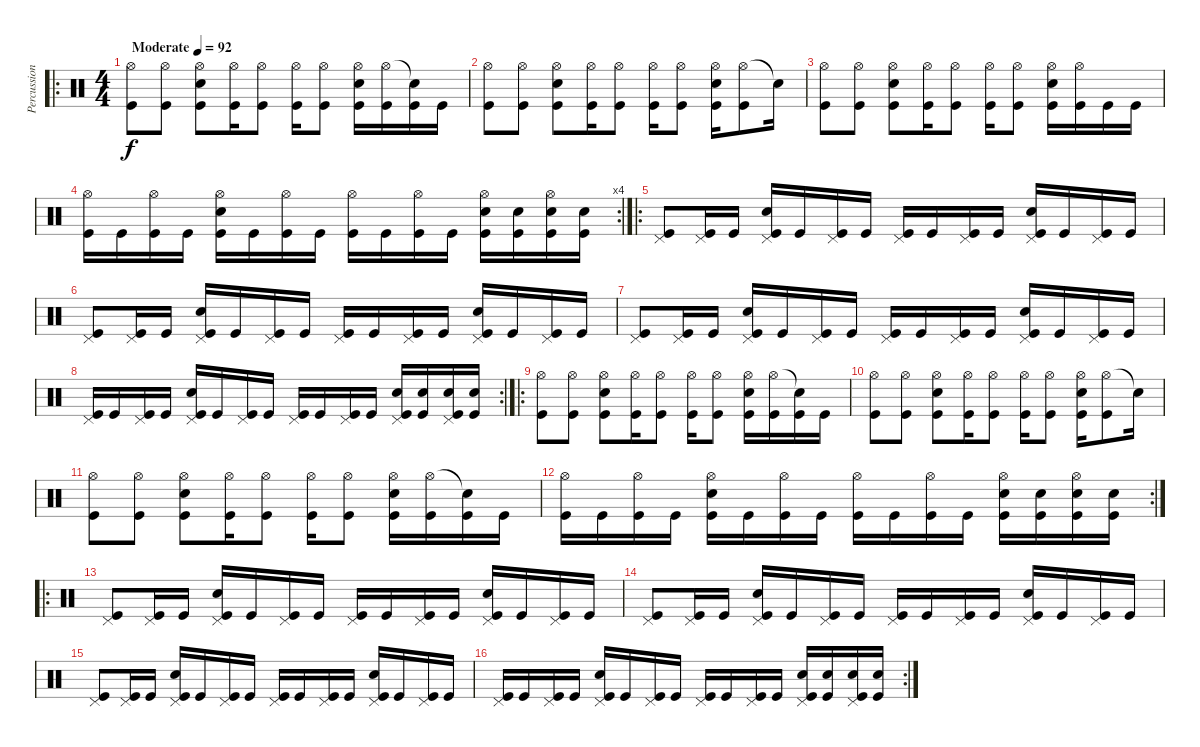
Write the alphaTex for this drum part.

\track ("Percussion" "Percussion") {instrument percussion}
\staff {score}
\articulation defaults
\ro
\ts (4 4)
\tempo (92 "Moderate")
\clef neutral
\ks c
("Hi-Hat (open)" "Kick (hit)").8{dy f} ("Hi-Hat (open)" "Kick (hit)").8 ("Hi-Hat (open)" "Electric Snare (hit)" "Kick (hit)").8 ("Hi-Hat (open)" "Kick (hit)").16 ("Hi-Hat (open)" "Kick (hit)").8 ("Hi-Hat (open)" "Kick (hit)").16 ("Hi-Hat (open)" "Kick (hit)").8 ("Hi-Hat (open)" "Electric Snare (hit)" "Kick (hit)").16 ("Hi-Hat (open)" "Kick (hit)").16 ("Snare (hit)"{t} "Kick (hit)").16 "Kick (hit)".16 |
("Hi-Hat (open)" "Kick (hit)").8 ("Hi-Hat (open)" "Kick (hit)").8 ("Hi-Hat (open)" "Electric Snare (hit)" "Kick (hit)").8 ("Hi-Hat (open)" "Kick (hit)").16 ("Hi-Hat (open)" "Kick (hit)").8 ("Hi-Hat (open)" "Kick (hit)").16 ("Hi-Hat (open)" "Kick (hit)").8 ("Hi-Hat (open)" "Electric Snare (hit)" "Kick (hit)").16 ("Hi-Hat (open)" "Kick (hit)").8 "Snare (hit)"{t}.16 |
("Hi-Hat (open)" "Kick (hit)").8 ("Hi-Hat (open)" "Kick (hit)").8 ("Hi-Hat (open)" "Electric Snare (hit)" "Kick (hit)").8 ("Hi-Hat (open)" "Kick (hit)").16 ("Hi-Hat (open)" "Kick (hit)").8 ("Hi-Hat (open)" "Kick (hit)").16 ("Hi-Hat (open)" "Kick (hit)").8 ("Hi-Hat (open)" "Electric Snare (hit)" "Kick (hit)").16 ("Hi-Hat (open)" "Kick (hit)").16 "Kick (hit)".16 "Kick (hit)".16 |
\rc 4
("Hi-Hat (open)" "Kick (hit)").16 "Kick (hit)".16 ("Hi-Hat (open)" "Kick (hit)").16 "Kick (hit)".16 ("Hi-Hat (open)" "Electric Snare (hit)" "Kick (hit)").16 "Kick (hit)".16 ("Hi-Hat (open)" "Kick (hit)").16 "Kick (hit)".16 ("Hi-Hat (open)" "Kick (hit)").16 "Kick (hit)".16 ("Hi-Hat (open)" "Kick (hit)").16 "Kick (hit)".16 ("Hi-Hat (open)" "Electric Snare (hit)" "Kick (hit)").16 ("Electric Snare (hit)" "Kick (hit)").16 ("Hi-Hat (open)" "Electric Snare (hit)" "Kick (hit)").16 ("Electric Snare (hit)" "Kick (hit)").16 |
\ro
("Pedal Hi-Hat (hit)" "Kick (hit)").8 ("Pedal Hi-Hat (hit)" "Kick (hit)").16 "Kick (hit)".16 ("Pedal Hi-Hat (hit)" "Electric Snare (hit)" "Kick (hit)").16 "Kick (hit)".16 ("Pedal Hi-Hat (hit)" "Kick (hit)").16 "Kick (hit)".16 ("Pedal Hi-Hat (hit)" "Kick (hit)").16 "Kick (hit)".16 ("Pedal Hi-Hat (hit)" "Kick (hit)").16 "Kick (hit)".16 ("Pedal Hi-Hat (hit)" "Electric Snare (hit)" "Kick (hit)").16 "Kick (hit)".16 ("Pedal Hi-Hat (hit)" "Kick (hit)").16 "Kick (hit)".16 |
("Pedal Hi-Hat (hit)" "Kick (hit)").8 ("Pedal Hi-Hat (hit)" "Kick (hit)").16 "Kick (hit)".16 ("Pedal Hi-Hat (hit)" "Electric Snare (hit)" "Kick (hit)").16 "Kick (hit)".16 ("Pedal Hi-Hat (hit)" "Kick (hit)").16 "Kick (hit)".16 ("Pedal Hi-Hat (hit)" "Kick (hit)").16 "Kick (hit)".16 ("Pedal Hi-Hat (hit)" "Kick (hit)").16 "Kick (hit)".16 ("Pedal Hi-Hat (hit)" "Electric Snare (hit)" "Kick (hit)").16 "Kick (hit)".16 ("Pedal Hi-Hat (hit)" "Kick (hit)").16 "Kick (hit)".16 |
("Pedal Hi-Hat (hit)" "Kick (hit)").8 ("Pedal Hi-Hat (hit)" "Kick (hit)").16 "Kick (hit)".16 ("Pedal Hi-Hat (hit)" "Electric Snare (hit)" "Kick (hit)").16 "Kick (hit)".16 ("Pedal Hi-Hat (hit)" "Kick (hit)").16 "Kick (hit)".16 ("Pedal Hi-Hat (hit)" "Kick (hit)").16 "Kick (hit)".16 ("Pedal Hi-Hat (hit)" "Kick (hit)").16 "Kick (hit)".16 ("Pedal Hi-Hat (hit)" "Electric Snare (hit)" "Kick (hit)").16 "Kick (hit)".16 ("Pedal Hi-Hat (hit)" "Kick (hit)").16 "Kick (hit)".16 |
\rc 2
("Pedal Hi-Hat (hit)" "Kick (hit)").16 "Kick (hit)".16 ("Pedal Hi-Hat (hit)" "Kick (hit)").16 "Kick (hit)".16 ("Pedal Hi-Hat (hit)" "Electric Snare (hit)" "Kick (hit)").16 "Kick (hit)".16 ("Pedal Hi-Hat (hit)" "Kick (hit)").16 "Kick (hit)".16 ("Pedal Hi-Hat (hit)" "Kick (hit)").16 "Kick (hit)".16 ("Pedal Hi-Hat (hit)" "Kick (hit)").16 "Kick (hit)".16 ("Pedal Hi-Hat (hit)" "Electric Snare (hit)" "Kick (hit)").16 ("Electric Snare (hit)" "Kick (hit)").16 ("Pedal Hi-Hat (hit)" "Electric Snare (hit)" "Kick (hit)").16 ("Electric Snare (hit)" "Kick (hit)").16 |
\ro
("Hi-Hat (open)" "Kick (hit)").8 ("Hi-Hat (open)" "Kick (hit)").8 ("Hi-Hat (open)" "Electric Snare (hit)" "Kick (hit)").8 ("Hi-Hat (open)" "Kick (hit)").16 ("Hi-Hat (open)" "Kick (hit)").8 ("Hi-Hat (open)" "Kick (hit)").16 ("Hi-Hat (open)" "Kick (hit)").8 ("Hi-Hat (open)" "Electric Snare (hit)" "Kick (hit)").16 ("Hi-Hat (open)" "Kick (hit)").16 ("Snare (hit)"{t} "Kick (hit)").16 "Kick (hit)".16 |
("Hi-Hat (open)" "Kick (hit)").8 ("Hi-Hat (open)" "Kick (hit)").8 ("Hi-Hat (open)" "Electric Snare (hit)" "Kick (hit)").8 ("Hi-Hat (open)" "Kick (hit)").16 ("Hi-Hat (open)" "Kick (hit)").8 ("Hi-Hat (open)" "Kick (hit)").16 ("Hi-Hat (open)" "Kick (hit)").8 ("Hi-Hat (open)" "Electric Snare (hit)" "Kick (hit)").16 ("Hi-Hat (open)" "Kick (hit)").8 "Snare (hit)"{t}.16 |
("Hi-Hat (open)" "Kick (hit)").8 ("Hi-Hat (open)" "Kick (hit)").8 ("Hi-Hat (open)" "Electric Snare (hit)" "Kick (hit)").8 ("Hi-Hat (open)" "Kick (hit)").16 ("Hi-Hat (open)" "Kick (hit)").8 ("Hi-Hat (open)" "Kick (hit)").16 ("Hi-Hat (open)" "Kick (hit)").8 ("Hi-Hat (open)" "Electric Snare (hit)" "Kick (hit)").16 ("Hi-Hat (open)" "Kick (hit)").16 ("Snare (hit)"{t} "Kick (hit)").16 "Kick (hit)".16 |
\rc 2
("Hi-Hat (open)" "Kick (hit)").16 "Kick (hit)".16 ("Hi-Hat (open)" "Kick (hit)").16 "Kick (hit)".16 ("Hi-Hat (open)" "Electric Snare (hit)" "Kick (hit)").16 "Kick (hit)".16 ("Hi-Hat (open)" "Kick (hit)").16 "Kick (hit)".16 ("Hi-Hat (open)" "Kick (hit)").16 "Kick (hit)".16 ("Hi-Hat (open)" "Kick (hit)").16 "Kick (hit)".16 ("Hi-Hat (open)" "Electric Snare (hit)" "Kick (hit)").16 ("Electric Snare (hit)" "Kick (hit)").16 ("Hi-Hat (open)" "Electric Snare (hit)" "Kick (hit)").16 ("Electric Snare (hit)" "Kick (hit)").16 |
\ro
("Pedal Hi-Hat (hit)" "Kick (hit)").8 ("Pedal Hi-Hat (hit)" "Kick (hit)").16 "Kick (hit)".16 ("Pedal Hi-Hat (hit)" "Electric Snare (hit)" "Kick (hit)").16 "Kick (hit)".16 ("Pedal Hi-Hat (hit)" "Kick (hit)").16 "Kick (hit)".16 ("Pedal Hi-Hat (hit)" "Kick (hit)").16 "Kick (hit)".16 ("Pedal Hi-Hat (hit)" "Kick (hit)").16 "Kick (hit)".16 ("Pedal Hi-Hat (hit)" "Electric Snare (hit)" "Kick (hit)").16 "Kick (hit)".16 ("Pedal Hi-Hat (hit)" "Kick (hit)").16 "Kick (hit)".16 |
("Pedal Hi-Hat (hit)" "Kick (hit)").8 ("Pedal Hi-Hat (hit)" "Kick (hit)").16 "Kick (hit)".16 ("Pedal Hi-Hat (hit)" "Electric Snare (hit)" "Kick (hit)").16 "Kick (hit)".16 ("Pedal Hi-Hat (hit)" "Kick (hit)").16 "Kick (hit)".16 ("Pedal Hi-Hat (hit)" "Kick (hit)").16 "Kick (hit)".16 ("Pedal Hi-Hat (hit)" "Kick (hit)").16 "Kick (hit)".16 ("Pedal Hi-Hat (hit)" "Electric Snare (hit)" "Kick (hit)").16 "Kick (hit)".16 ("Pedal Hi-Hat (hit)" "Kick (hit)").16 "Kick (hit)".16 |
("Pedal Hi-Hat (hit)" "Kick (hit)").8 ("Pedal Hi-Hat (hit)" "Kick (hit)").16 "Kick (hit)".16 ("Pedal Hi-Hat (hit)" "Electric Snare (hit)" "Kick (hit)").16 "Kick (hit)".16 ("Pedal Hi-Hat (hit)" "Kick (hit)").16 "Kick (hit)".16 ("Pedal Hi-Hat (hit)" "Kick (hit)").16 "Kick (hit)".16 ("Pedal Hi-Hat (hit)" "Kick (hit)").16 "Kick (hit)".16 ("Pedal Hi-Hat (hit)" "Electric Snare (hit)" "Kick (hit)").16 "Kick (hit)".16 ("Pedal Hi-Hat (hit)" "Kick (hit)").16 "Kick (hit)".16 |
\rc 2
("Pedal Hi-Hat (hit)" "Kick (hit)").16 "Kick (hit)".16 ("Pedal Hi-Hat (hit)" "Kick (hit)").16 "Kick (hit)".16 ("Pedal Hi-Hat (hit)" "Electric Snare (hit)" "Kick (hit)").16 "Kick (hit)".16 ("Pedal Hi-Hat (hit)" "Kick (hit)").16 "Kick (hit)".16 ("Pedal Hi-Hat (hit)" "Kick (hit)").16 "Kick (hit)".16 ("Pedal Hi-Hat (hit)" "Kick (hit)").16 "Kick (hit)".16 ("Pedal Hi-Hat (hit)" "Electric Snare (hit)" "Kick (hit)").16 ("Electric Snare (hit)" "Kick (hit)").16 ("Pedal Hi-Hat (hit)" "Electric Snare (hit)" "Kick (hit)").16 ("Electric Snare (hit)" "Kick (hit)").16
